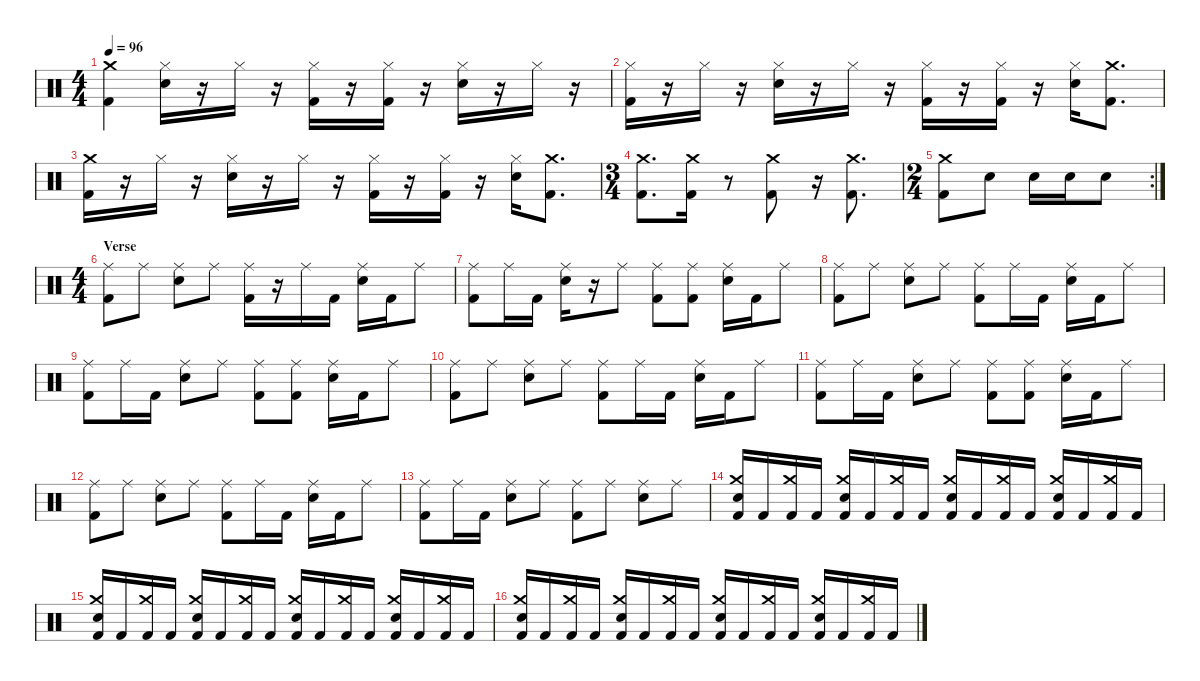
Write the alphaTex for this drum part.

\hideDynamics
\bracketExtendMode nobrackets
\singleTrackTrackNamePolicy hidden
\multiTrackTrackNamePolicy hidden
\firstSystemTrackNameMode fullname
\firstSystemTrackNameOrientation horizontal
\otherSystemsTrackNameOrientation horizontal
\track ("Drumkit" "Drums") {instrument percussion}
\staff {score}
\articulation defaults
\ts (4 4)
\tempo 96
\clef neutral
\ks c
("Crash medium (hit)" "Kick (hit) 2").4{dy f beam Down} ("Snare (hit) 2" "Hi-Hat (closed)").16{beam Down} r.16{beam Down} "Hi-Hat (closed)".16{beam Down} r.16{beam Down} ("Kick (hit) 2" "Hi-Hat (closed)").16{beam Down} r.16{beam Down} ("Kick (hit) 2" "Hi-Hat (closed)").16{beam Down} r.16{beam Down} ("Snare (hit) 2" "Hi-Hat (closed)").16{beam Down} r.16{beam Down} "Hi-Hat (closed)".16{beam Down} r.16{beam Down} |
("Hi-Hat (closed)" "Kick (hit) 2").16{beam Down} r.16{beam Down} "Hi-Hat (closed)".16{beam Down} r.16{beam Down} ("Snare (hit) 2" "Hi-Hat (closed)").16{beam Down} r.16{beam Down} "Hi-Hat (closed)".16{beam Down} r.16{beam Down} ("Hi-Hat (closed)" "Kick (hit) 2").16{beam Down} r.16{beam Down} ("Kick (hit) 2" "Hi-Hat (closed)").16{beam Down} r.16{beam Down} ("Hi-Hat (closed)" "Snare (hit) 2").16{beam Down} ("Crash medium (hit)" "Kick (hit) 2").8{d beam Down} |
("Kick (hit) 2" "Crash medium (hit)").16{beam Down} r.16{beam Down} "Hi-Hat (closed)".16{beam Down} r.16{beam Down} ("Snare (hit) 2" "Hi-Hat (closed)").16{beam Down} r.16{beam Down} "Hi-Hat (closed)".16{beam Down} r.16{beam Down} ("Hi-Hat (closed)" "Kick (hit) 2").16{beam Down} r.16{beam Down} ("Kick (hit) 2" "Hi-Hat (closed)").16{beam Down} r.16{beam Down} ("Hi-Hat (closed)" "Snare (hit) 2").16{beam Down} ("Crash medium (hit)" "Kick (hit) 2").8{d beam Down} |
\ts (3 4)
("Crash medium (hit)" "Kick (hit) 2").8{d beam Down} ("Crash medium (hit)" "Kick (hit) 2").16{beam Down} r.8{beam Down} ("Crash medium (hit)" "Kick (hit) 2").8{beam Down} r.16{beam Down} ("Crash medium (hit)" "Kick (hit) 2").8{d beam Down} |
\rc 2
\ts (2 4)
("Crash medium (hit)" "Kick (hit) 2").8{beam Down} "Snare (hit) 2".8{beam Down} "Snare (hit) 2".16{beam Down} "Snare (hit) 2".16{beam Down} "Snare (hit) 2".8{beam Down} |
\ts (4 4)
\section ("" "Verse")
\scale
0.256862 ("Ride (middle)" "Kick (hit) 2").8{beam Down} "Ride (middle)".8{beam Down} ("Ride (middle)" "Snare (hit) 2").8{beam Down} "Ride (middle)".8{beam Down} ("Ride (middle)" "Kick (hit) 2").16{beam Down} r.16{beam Down} "Ride (middle)".16{beam Down} "Kick (hit) 2".16{beam Down} ("Ride (middle)" "Snare (hit) 2").16{beam Down} "Kick (hit) 2".16{beam Down} "Ride (middle)".8{beam Down} |
\scale
0.251527 ("Ride (middle)" "Kick (hit) 2").8{beam Down} "Ride (middle)".16{beam Down} "Kick (hit) 2".16{beam Down} ("Ride (middle)" "Snare (hit) 2").16{beam Down} r.16{beam Down} "Ride (middle)".8{beam Down} ("Ride (middle)" "Kick (hit) 2").8{beam Down} ("Ride (middle)" "Kick (hit) 2").8{beam Down} ("Ride (middle)" "Snare (hit) 2").16{beam Down} "Kick (hit) 2".16{beam Down} "Ride (middle)".8{beam Down} |
\scale
0.24581 ("Ride (middle)" "Kick (hit) 2").8{beam Down} "Ride (middle)".8{beam Down} ("Ride (middle)" "Snare (hit) 2").8{beam Down} "Ride (middle)".8{beam Down} ("Ride (middle)" "Kick (hit) 2").8{beam Down} "Ride (middle)".16{beam Down} "Kick (hit) 2".16{beam Down} ("Ride (middle)" "Snare (hit) 2").16{beam Down} "Kick (hit) 2".16{beam Down} "Ride (middle)".8{beam Down} |
\scale
0.24581 ("Ride (middle)" "Kick (hit) 2").8{beam Down} "Ride (middle)".16{beam Down} "Kick (hit) 2".16{beam Down} ("Ride (middle)" "Snare (hit) 2").8{beam Down} "Ride (middle)".8{beam Down} ("Ride (middle)" "Kick (hit) 2").8{beam Down} ("Ride (middle)" "Kick (hit) 2").8{beam Down} ("Ride (middle)" "Snare (hit) 2").16{beam Down} "Kick (hit) 2".16{beam Down} "Ride (middle)".8{beam Down} |
("Ride (middle)" "Kick (hit) 2").8{beam Down} "Ride (middle)".8{beam Down} ("Snare (hit) 2" "Ride (middle)").8{beam Down} "Ride (middle)".8{beam Down} ("Kick (hit) 2" "Ride (middle)").8{beam Down} "Ride (middle)".16{beam Down} "Kick (hit) 2".16{beam Down} ("Snare (hit) 2" "Ride (middle)").16{beam Down} "Kick (hit) 2".16{beam Down} "Ride (middle)".8{beam Down} |
("Ride (middle)" "Kick (hit) 2").8{beam Down} "Ride (middle)".16{beam Down} "Kick (hit) 2".16{beam Down} ("Snare (hit) 2" "Ride (middle)").8{beam Down} "Ride (middle)".8{beam Down} ("Kick (hit) 2" "Ride (middle)").8{beam Down} ("Ride (middle)" "Kick (hit) 2").8{beam Down} ("Snare (hit) 2" "Ride (middle)").16{beam Down} "Kick (hit) 2".16{beam Down} "Ride (middle)".8{beam Down} |
("Ride (middle)" "Kick (hit) 2").8{beam Down} "Ride (middle)".8{beam Down} ("Ride (middle)" "Snare (hit) 2").8{beam Down} "Ride (middle)".8{beam Down} ("Ride (middle)" "Kick (hit) 2").8{beam Down} "Ride (middle)".16{beam Down} "Kick (hit) 2".16{beam Down} ("Ride (middle)" "Snare (hit) 2").16{beam Down} "Kick (hit) 2".16{beam Down} "Ride (middle)".8{beam Down} |
("Ride (middle)" "Kick (hit) 2").8{beam Down} "Ride (middle)".16{beam Down} "Kick (hit) 2".16{beam Down} ("Ride (middle)" "Snare (hit) 2").8{beam Down} "Ride (middle)".8{beam Down} ("Ride (middle)" "Kick (hit) 2").8{beam Down} "Ride (middle)".8{beam Down} ("Ride (middle)" "Snare (hit) 2").8{beam Down} "Ride (middle)".8{beam Down} |
("Crash medium (hit)" "Snare (hit) 2" "Kick (hit) 2").16{dy ff beam Up} "Kick (hit) 2".16{dy f beam Up} ("Crash medium (hit)" "Kick (hit) 2").16{beam Up} "Kick (hit) 2".16{beam Up} ("Crash medium (hit)" "Snare (hit) 2" "Kick (hit) 2").16{dy ff beam Up} "Kick (hit) 2".16{dy f beam Up} ("Crash medium (hit)" "Kick (hit) 2").16{beam Up} "Kick (hit) 2".16{beam Up} ("Crash medium (hit)" "Snare (hit) 2" "Kick (hit) 2").16{dy ff beam Up} "Kick (hit) 2".16{dy f beam Up} ("Crash medium (hit)" "Kick (hit) 2").16{beam Up} "Kick (hit) 2".16{beam Up} ("Crash medium (hit)" "Snare (hit) 2" "Kick (hit) 2").16{dy ff beam Up} "Kick (hit) 2".16{dy f beam Up} ("Crash medium (hit)" "Kick (hit) 2").16{beam Up} "Kick (hit) 2".16{beam Up} |
("Crash medium (hit)" "Snare (hit) 2" "Kick (hit) 2").16{dy ff beam Up} "Kick (hit) 2".16{dy f beam Up} ("Crash medium (hit)" "Kick (hit) 2").16{beam Up} "Kick (hit) 2".16{beam Up} ("Crash medium (hit)" "Snare (hit) 2" "Kick (hit) 2").16{dy ff beam Up} "Kick (hit) 2".16{dy f beam Up} ("Crash medium (hit)" "Kick (hit) 2").16{beam Up} "Kick (hit) 2".16{beam Up} ("Crash medium (hit)" "Snare (hit) 2" "Kick (hit) 2").16{dy ff beam Up} "Kick (hit) 2".16{dy f beam Up} ("Crash medium (hit)" "Kick (hit) 2").16{beam Up} "Kick (hit) 2".16{beam Up} ("Crash medium (hit)" "Snare (hit) 2" "Kick (hit) 2").16{dy ff beam Up} "Kick (hit) 2".16{dy f beam Up} ("Crash medium (hit)" "Kick (hit) 2").16{beam Up} "Kick (hit) 2".16{beam Up} |
("Crash medium (hit)" "Snare (hit) 2" "Kick (hit) 2").16{dy ff beam Up} "Kick (hit) 2".16{dy f beam Up} ("Crash medium (hit)" "Kick (hit) 2").16{beam Up} "Kick (hit) 2".16{beam Up} ("Crash medium (hit)" "Snare (hit) 2" "Kick (hit) 2").16{dy ff beam Up} "Kick (hit) 2".16{dy f beam Up} ("Crash medium (hit)" "Kick (hit) 2").16{beam Up} "Kick (hit) 2".16{beam Up} ("Crash medium (hit)" "Snare (hit) 2" "Kick (hit) 2").16{dy ff beam Up} "Kick (hit) 2".16{dy f beam Up} ("Crash medium (hit)" "Kick (hit) 2").16{beam Up} "Kick (hit) 2".16{beam Up} ("Crash medium (hit)" "Snare (hit) 2" "Kick (hit) 2").16{dy ff beam Up} "Kick (hit) 2".16{dy f beam Up} ("Crash medium (hit)" "Kick (hit) 2").16{beam Up} "Kick (hit) 2".16{beam Up}
